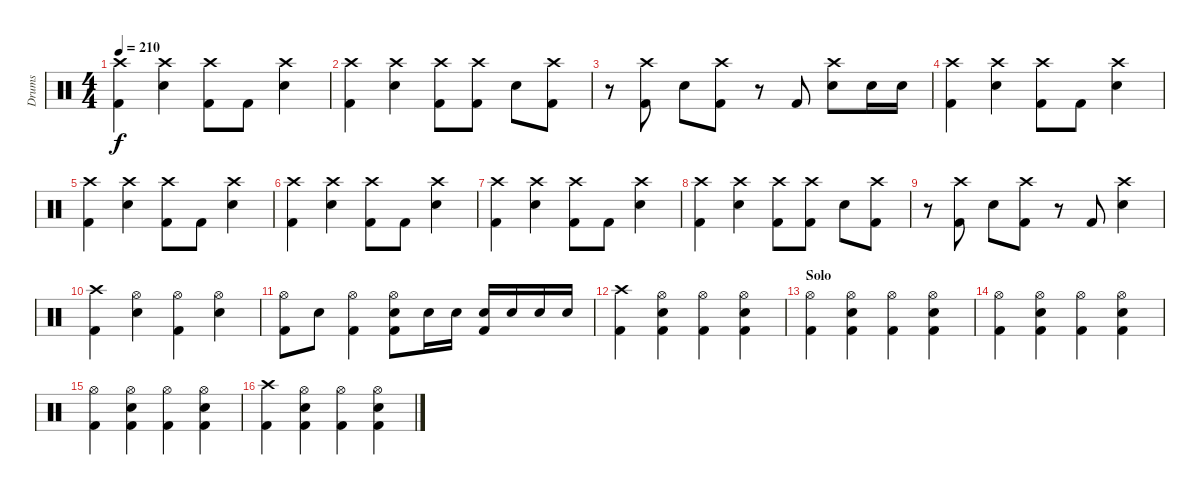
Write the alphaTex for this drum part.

\track ("Drums" "Drums") {instrument percussion}
\staff {score}
\articulation defaults
\ts (4 4)
\tempo 210
\clef neutral
\ks c
("Crash high (hit)" "Kick (hit) 2").4{dy f} ("Crash high (hit)" "Snare (hit) 2").4 ("Crash high (hit)" "Kick (hit) 2").8 "Kick (hit) 2".8 ("Crash high (hit)" "Snare (hit) 2").4 |
("Crash high (hit)" "Kick (hit) 2").4 ("Crash high (hit)" "Snare (hit) 2").4 ("Crash high (hit)" "Kick (hit) 2").8 ("Crash high (hit)" "Kick (hit) 2").8 "Snare (hit) 2".8 ("Crash high (hit)" "Kick (hit) 2").8 |
r.8 ("Crash high (hit)" "Kick (hit) 2").8 "Snare (hit) 2".8 ("Crash high (hit)" "Kick (hit) 2").8 r.8 "Kick (hit) 2".8 ("Crash high (hit)" "Snare (hit) 2").8 "Snare (hit) 2".16 "Snare (hit) 2".16 |
("Crash high (hit)" "Kick (hit) 2").4 ("Crash high (hit)" "Snare (hit) 2").4 ("Crash high (hit)" "Kick (hit) 2").8 "Kick (hit) 2".8 ("Crash high (hit)" "Snare (hit) 2").4 |
("Crash high (hit)" "Kick (hit) 2").4 ("Crash high (hit)" "Snare (hit) 2").4 ("Crash high (hit)" "Kick (hit) 2").8 "Kick (hit) 2".8 ("Crash high (hit)" "Snare (hit) 2").4 |
("Crash high (hit)" "Kick (hit) 2").4 ("Crash high (hit)" "Snare (hit) 2").4 ("Crash high (hit)" "Kick (hit) 2").8 "Kick (hit) 2".8 ("Crash high (hit)" "Snare (hit) 2").4 |
("Crash high (hit)" "Kick (hit) 2").4 ("Crash high (hit)" "Snare (hit) 2").4 ("Crash high (hit)" "Kick (hit) 2").8 "Kick (hit) 2".8 ("Crash high (hit)" "Snare (hit) 2").4 |
("Crash high (hit)" "Kick (hit) 2").4 ("Crash high (hit)" "Snare (hit) 2").4 ("Crash high (hit)" "Kick (hit) 2").8 ("Crash high (hit)" "Kick (hit) 2").8 "Snare (hit) 2".8 ("Crash high (hit)" "Kick (hit) 2").8 |
r.8 ("Crash high (hit)" "Kick (hit) 2").8 "Snare (hit) 2".8 ("Crash high (hit)" "Kick (hit) 2").8 r.8 "Kick (hit) 2".8 ("Crash high (hit)" "Snare (hit) 2").4 |
("Crash high (hit)" "Kick (hit) 2").4 ("Hi-Hat (open)" "Snare (hit) 2").4 ("Hi-Hat (open)" "Kick (hit) 2").4 ("Hi-Hat (open)" "Snare (hit) 2").4 |
("Hi-Hat (open)" "Kick (hit) 2").8 "Snare (hit) 2".8 ("Hi-Hat (open)" "Kick (hit) 2").4 ("Hi-Hat (open)" "Snare (hit) 2" "Kick (hit) 2").8 "Snare (hit) 2".16 "Snare (hit) 2".16 ("Snare (hit) 2" "Kick (hit) 2").16 "Snare (hit) 2".16 "Snare (hit) 2".16 "Snare (hit) 2".16 |
("Crash high (hit)" "Kick (hit) 2").4 ("Hi-Hat (open)" "Snare (hit) 2" "Kick (hit) 2").4 ("Hi-Hat (open)" "Kick (hit) 2").4 ("Hi-Hat (open)" "Snare (hit) 2" "Kick (hit) 2").4 |
\section ("" "Solo")
("Hi-Hat (open)" "Kick (hit) 2").4 ("Hi-Hat (open)" "Snare (hit) 2" "Kick (hit) 2").4 ("Hi-Hat (open)" "Kick (hit) 2").4 ("Hi-Hat (open)" "Snare (hit) 2" "Kick (hit) 2").4 |
("Hi-Hat (open)" "Kick (hit) 2").4 ("Hi-Hat (open)" "Snare (hit) 2" "Kick (hit) 2").4 ("Hi-Hat (open)" "Kick (hit) 2").4 ("Hi-Hat (open)" "Snare (hit) 2" "Kick (hit) 2").4 |
("Hi-Hat (open)" "Kick (hit) 2").4 ("Hi-Hat (open)" "Snare (hit) 2" "Kick (hit) 2").4 ("Hi-Hat (open)" "Kick (hit) 2").4 ("Hi-Hat (open)" "Snare (hit) 2" "Kick (hit) 2").4 |
("Crash high (hit)" "Kick (hit) 2").4 ("Hi-Hat (open)" "Snare (hit) 2" "Kick (hit) 2").4 ("Hi-Hat (open)" "Kick (hit) 2").4 ("Hi-Hat (open)" "Snare (hit) 2" "Kick (hit) 2").4
